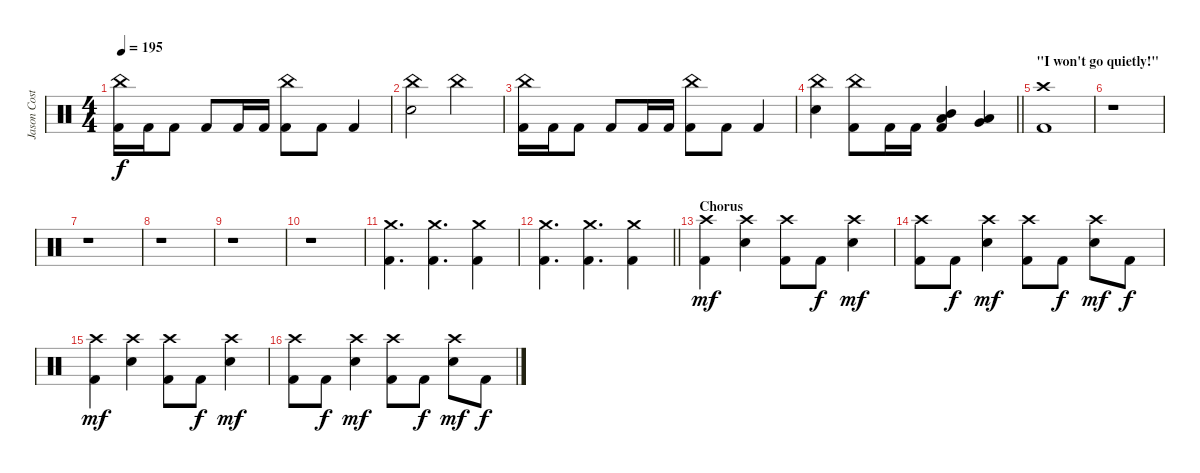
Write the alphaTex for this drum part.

\track ("Jason Costa" "Jason Cost") {instrument percussion}
\staff {score}
\articulation defaults
\ts (4 4)
\tempo 195
\clef neutral
\ks c
("China (hit)" "Kick (hit) 2").16{dy f} "Kick (hit) 2".16 "Kick (hit) 2".8 "Kick (hit) 2".8 "Kick (hit) 2".16 "Kick (hit) 2".16 ("China (hit)" "Kick (hit) 2").8 "Kick (hit) 2".8 "Kick (hit) 2".4 |
("China (hit)" "Electric Snare (hit)").2 "China (hit)".2 |
("China (hit)" "Kick (hit) 2").16 "Kick (hit) 2".16 "Kick (hit) 2".8 "Kick (hit) 2".8 "Kick (hit) 2".16 "Kick (hit) 2".16 ("China (hit)" "Kick (hit) 2").8 "Kick (hit) 2".8 "Kick (hit) 2".4 |
\barLineRight lightlight
("China (hit)" "Electric Snare (hit)").4 ("China (hit)" "Kick (hit) 2").8 "Kick (hit) 2".16 "Kick (hit) 2".16 ("Mid Tom (hit)" "Low Tom (hit)" "Kick (hit) 2").4 ("Low Tom (hit)" "Very Low Tom (hit)").4 |
\section ("" "\"I won't go quietly!\"")
("Crash high (hit)" "Kick (hit) 2").1 |
r.1 |
r.1 |
r.1 |
r.1 |
r.1 |
("Crash medium (hit)" "Kick (hit) 2").4{d} ("Crash medium (hit)" "Kick (hit) 2").4{d} ("Crash medium (hit)" "Kick (hit) 2").4 |
\barLineRight lightlight
("Crash medium (hit)" "Kick (hit) 2").4{d} ("Crash medium (hit)" "Kick (hit) 2").4{d} ("Crash medium (hit)" "Kick (hit) 2").4 |
\section ("" "Chorus")
("Crash high (hit)" "Kick (hit) 2").4{dy mf} ("Crash high (hit)" "Electric Snare (hit)").4 ("Crash high (hit)" "Kick (hit) 2").8 "Kick (hit) 2".8{dy f} ("Crash high (hit)" "Electric Snare (hit)").4{dy mf} |
("Crash high (hit)" "Kick (hit) 2").8 "Kick (hit) 2".8{dy f} ("Crash high (hit)" "Electric Snare (hit)").4{dy mf} ("Crash high (hit)" "Kick (hit) 2").8 "Kick (hit) 2".8{dy f} ("Crash high (hit)" "Electric Snare (hit)").8{dy mf} "Kick (hit) 2".8{dy f} |
("Crash high (hit)" "Kick (hit) 2").4{dy mf} ("Crash high (hit)" "Electric Snare (hit)").4 ("Crash high (hit)" "Kick (hit) 2").8 "Kick (hit) 2".8{dy f} ("Crash high (hit)" "Electric Snare (hit)").4{dy mf} |
("Crash high (hit)" "Kick (hit) 2").8 "Kick (hit) 2".8{dy f} ("Crash high (hit)" "Electric Snare (hit)").4{dy mf} ("Crash high (hit)" "Kick (hit) 2").8 "Kick (hit) 2".8{dy f} ("Crash high (hit)" "Electric Snare (hit)").8{dy mf} "Kick (hit) 2".8{dy f}
